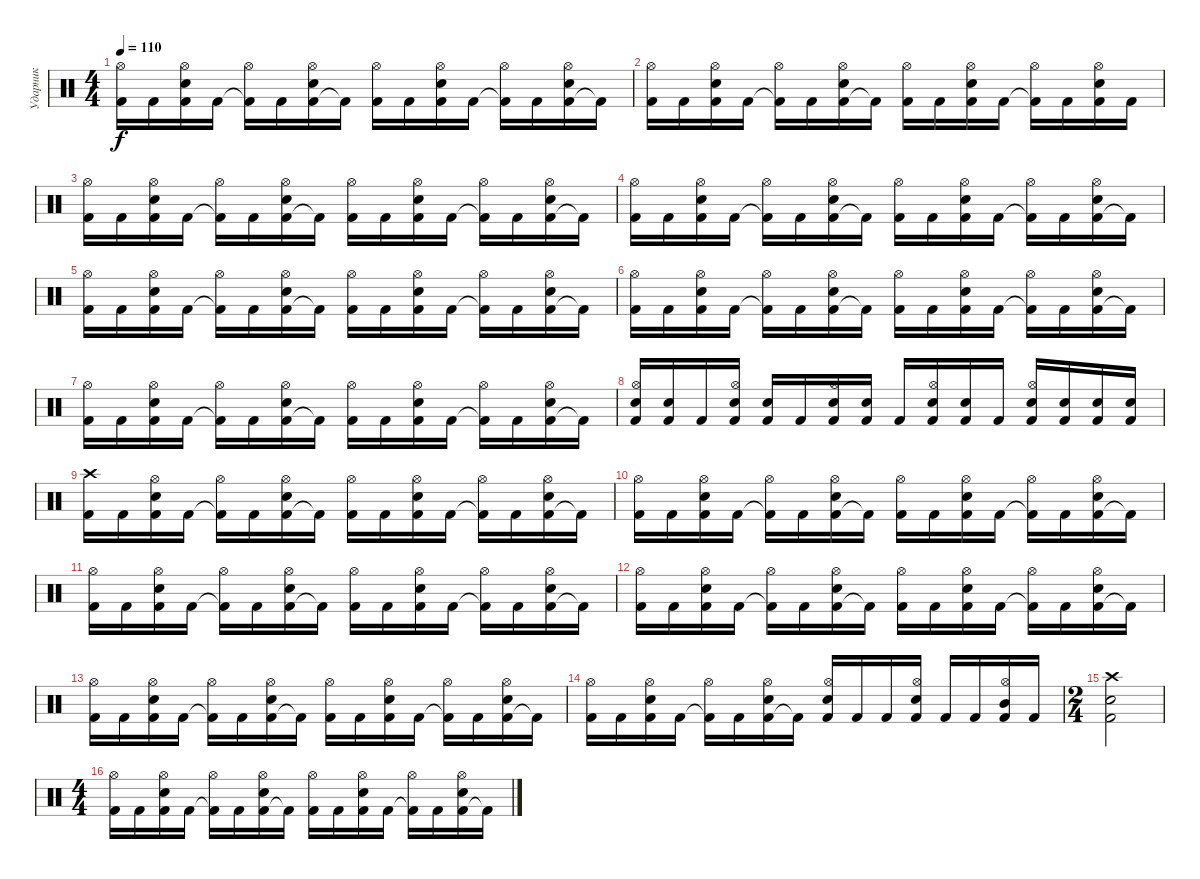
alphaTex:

\track ("Ударник" "Ударник") {instrument percussion}
\staff
\articulation defaults
\ts (4 4)
\tempo 110
\clef neutral
\ks c
("Kick (hit) 2" "Hi-Hat (open)").16{dy f} "Kick (hit) 2".16 ("Kick (hit) 2" "Snare (hit) 2" "Hi-Hat (open)").16 "Kick (hit) 2".16 ("Kick (hit) 2"{t} "Hi-Hat (open)").16 "Kick (hit) 2".16 ("Kick (hit) 2" "Snare (hit) 2" "Hi-Hat (open)").16 "Kick (hit) 2"{t}.16 ("Kick (hit) 2" "Hi-Hat (open)").16 "Kick (hit) 2".16 ("Kick (hit) 2" "Snare (hit) 2" "Hi-Hat (open)").16 "Kick (hit) 2".16 ("Kick (hit) 2"{t} "Hi-Hat (open)").16 "Kick (hit) 2".16 ("Kick (hit) 2" "Snare (hit) 2" "Hi-Hat (open)").16 "Kick (hit) 2"{t}.16 |
("Kick (hit) 2" "Hi-Hat (open)").16 "Kick (hit) 2".16 ("Kick (hit) 2" "Snare (hit) 2" "Hi-Hat (open)").16 "Kick (hit) 2".16 ("Kick (hit) 2"{t} "Hi-Hat (open)").16 "Kick (hit) 2".16 ("Kick (hit) 2" "Snare (hit) 2" "Hi-Hat (open)").16 "Kick (hit) 2"{t}.16 ("Kick (hit) 2" "Hi-Hat (open)").16 "Kick (hit) 2".16 ("Kick (hit) 2" "Snare (hit) 2" "Hi-Hat (open)").16 "Kick (hit) 2".16 ("Kick (hit) 2"{t} "Hi-Hat (open)").16 "Kick (hit) 2".16 ("Kick (hit) 2" "Snare (hit) 2" "Hi-Hat (open)").16 "Kick (hit) 2".16 |
("Kick (hit) 2" "Hi-Hat (open)").16 "Kick (hit) 2".16 ("Kick (hit) 2" "Snare (hit) 2" "Hi-Hat (open)").16 "Kick (hit) 2".16 ("Kick (hit) 2"{t} "Hi-Hat (open)").16 "Kick (hit) 2".16 ("Kick (hit) 2" "Snare (hit) 2" "Hi-Hat (open)").16 "Kick (hit) 2"{t}.16 ("Kick (hit) 2" "Hi-Hat (open)").16 "Kick (hit) 2".16 ("Kick (hit) 2" "Snare (hit) 2" "Hi-Hat (open)").16 "Kick (hit) 2".16 ("Kick (hit) 2"{t} "Hi-Hat (open)").16 "Kick (hit) 2".16 ("Kick (hit) 2" "Snare (hit) 2" "Hi-Hat (open)").16 "Kick (hit) 2"{t}.16 |
("Kick (hit) 2" "Hi-Hat (open)").16 "Kick (hit) 2".16 ("Kick (hit) 2" "Snare (hit) 2" "Hi-Hat (open)").16 "Kick (hit) 2".16 ("Kick (hit) 2"{t} "Hi-Hat (open)").16 "Kick (hit) 2".16 ("Kick (hit) 2" "Snare (hit) 2" "Hi-Hat (open)").16 "Kick (hit) 2"{t}.16 ("Kick (hit) 2" "Hi-Hat (open)").16 "Kick (hit) 2".16 ("Kick (hit) 2" "Snare (hit) 2" "Hi-Hat (open)").16 "Kick (hit) 2".16 ("Kick (hit) 2"{t} "Hi-Hat (open)").16 "Kick (hit) 2".16 ("Kick (hit) 2" "Snare (hit) 2" "Hi-Hat (open)").16 "Kick (hit) 2"{t}.16 |
("Kick (hit) 2" "Hi-Hat (open)").16 "Kick (hit) 2".16 ("Kick (hit) 2" "Snare (hit) 2" "Hi-Hat (open)").16 "Kick (hit) 2".16 ("Kick (hit) 2"{t} "Hi-Hat (open)").16 "Kick (hit) 2".16 ("Kick (hit) 2" "Snare (hit) 2" "Hi-Hat (open)").16 "Kick (hit) 2"{t}.16 ("Kick (hit) 2" "Hi-Hat (open)").16 "Kick (hit) 2".16 ("Kick (hit) 2" "Snare (hit) 2" "Hi-Hat (open)").16 "Kick (hit) 2".16 ("Kick (hit) 2"{t} "Hi-Hat (open)").16 "Kick (hit) 2".16 ("Kick (hit) 2" "Snare (hit) 2" "Hi-Hat (open)").16 "Kick (hit) 2"{t}.16 |
("Kick (hit) 2" "Hi-Hat (open)").16 "Kick (hit) 2".16 ("Kick (hit) 2" "Snare (hit) 2" "Hi-Hat (open)").16 "Kick (hit) 2".16 ("Kick (hit) 2"{t} "Hi-Hat (open)").16 "Kick (hit) 2".16 ("Kick (hit) 2" "Snare (hit) 2" "Hi-Hat (open)").16 "Kick (hit) 2"{t}.16 ("Kick (hit) 2" "Hi-Hat (open)").16 "Kick (hit) 2".16 ("Kick (hit) 2" "Snare (hit) 2" "Hi-Hat (open)").16 "Kick (hit) 2".16 ("Kick (hit) 2"{t} "Hi-Hat (open)").16 "Kick (hit) 2".16 ("Kick (hit) 2" "Snare (hit) 2" "Hi-Hat (open)").16 "Kick (hit) 2"{t}.16 |
("Kick (hit) 2" "Hi-Hat (open)").16 "Kick (hit) 2".16 ("Kick (hit) 2" "Snare (hit) 2" "Hi-Hat (open)").16 "Kick (hit) 2".16 ("Kick (hit) 2"{t} "Hi-Hat (open)").16 "Kick (hit) 2".16 ("Kick (hit) 2" "Snare (hit) 2" "Hi-Hat (open)").16 "Kick (hit) 2"{t}.16 ("Kick (hit) 2" "Hi-Hat (open)").16 "Kick (hit) 2".16 ("Kick (hit) 2" "Snare (hit) 2" "Hi-Hat (open)").16 "Kick (hit) 2".16 ("Kick (hit) 2"{t} "Hi-Hat (open)").16 "Kick (hit) 2".16 ("Kick (hit) 2" "Snare (hit) 2" "Hi-Hat (open)").16 "Kick (hit) 2"{t}.16 |
("Kick (hit) 2" "Snare (hit) 2" "Hi-Hat (open)").16 ("Kick (hit) 2" "Snare (hit) 2").16 "Kick (hit) 2".16 ("Kick (hit) 2" "Snare (hit) 2" "Hi-Hat (open)").16 ("Kick (hit) 2" "Snare (hit) 2").16 "Kick (hit) 2".16 ("Kick (hit) 2" "Snare (hit) 2" "Hi-Hat (open)").16 ("Kick (hit) 2" "Snare (hit) 2").16 "Kick (hit) 2".16 ("Kick (hit) 2" "Snare (hit) 2" "Hi-Hat (open)").16 ("Kick (hit) 2" "Snare (hit) 2").16 "Kick (hit) 2".16 ("Kick (hit) 2" "Snare (hit) 2" "Hi-Hat (open)").16 ("Kick (hit) 2" "Snare (hit) 2").16 ("Kick (hit) 2" "Snare (hit) 2").16 ("Kick (hit) 2" "Snare (hit) 2").16 |
("Kick (hit) 2" "Crash high (hit)").16 "Kick (hit) 2".16 ("Kick (hit) 2" "Snare (hit) 2" "Hi-Hat (open)").16 "Kick (hit) 2".16 ("Kick (hit) 2"{t} "Hi-Hat (open)").16 "Kick (hit) 2".16 ("Kick (hit) 2" "Snare (hit) 2" "Hi-Hat (open)").16 "Kick (hit) 2"{t}.16 ("Kick (hit) 2" "Hi-Hat (open)").16 "Kick (hit) 2".16 ("Kick (hit) 2" "Snare (hit) 2" "Hi-Hat (open)").16 "Kick (hit) 2".16 ("Kick (hit) 2"{t} "Hi-Hat (open)").16 "Kick (hit) 2".16 ("Kick (hit) 2" "Snare (hit) 2" "Hi-Hat (open)").16 "Kick (hit) 2"{t}.16 |
("Kick (hit) 2" "Hi-Hat (open)").16 "Kick (hit) 2".16 ("Kick (hit) 2" "Snare (hit) 2" "Hi-Hat (open)").16 "Kick (hit) 2".16 ("Kick (hit) 2"{t} "Hi-Hat (open)").16 "Kick (hit) 2".16 ("Kick (hit) 2" "Snare (hit) 2" "Hi-Hat (open)").16 "Kick (hit) 2"{t}.16 ("Kick (hit) 2" "Hi-Hat (open)").16 "Kick (hit) 2".16 ("Kick (hit) 2" "Snare (hit) 2" "Hi-Hat (open)").16 "Kick (hit) 2".16 ("Kick (hit) 2"{t} "Hi-Hat (open)").16 "Kick (hit) 2".16 ("Kick (hit) 2" "Snare (hit) 2" "Hi-Hat (open)").16 "Kick (hit) 2"{t}.16 |
("Kick (hit) 2" "Hi-Hat (open)").16 "Kick (hit) 2".16 ("Kick (hit) 2" "Snare (hit) 2" "Hi-Hat (open)").16 "Kick (hit) 2".16 ("Kick (hit) 2"{t} "Hi-Hat (open)").16 "Kick (hit) 2".16 ("Kick (hit) 2" "Snare (hit) 2" "Hi-Hat (open)").16 "Kick (hit) 2"{t}.16 ("Kick (hit) 2" "Hi-Hat (open)").16 "Kick (hit) 2".16 ("Kick (hit) 2" "Snare (hit) 2" "Hi-Hat (open)").16 "Kick (hit) 2".16 ("Kick (hit) 2"{t} "Hi-Hat (open)").16 "Kick (hit) 2".16 ("Kick (hit) 2" "Snare (hit) 2" "Hi-Hat (open)").16 "Kick (hit) 2"{t}.16 |
("Kick (hit) 2" "Hi-Hat (open)").16 "Kick (hit) 2".16 ("Kick (hit) 2" "Snare (hit) 2" "Hi-Hat (open)").16 "Kick (hit) 2".16 ("Kick (hit) 2"{t} "Hi-Hat (open)").16 "Kick (hit) 2".16 ("Kick (hit) 2" "Snare (hit) 2" "Hi-Hat (open)").16 "Kick (hit) 2"{t}.16 ("Kick (hit) 2" "Hi-Hat (open)").16 "Kick (hit) 2".16 ("Kick (hit) 2" "Snare (hit) 2" "Hi-Hat (open)").16 "Kick (hit) 2".16 ("Kick (hit) 2"{t} "Hi-Hat (open)").16 "Kick (hit) 2".16 ("Kick (hit) 2" "Snare (hit) 2" "Hi-Hat (open)").16 "Kick (hit) 2"{t}.16 |
("Kick (hit) 2" "Hi-Hat (open)").16 "Kick (hit) 2".16 ("Kick (hit) 2" "Snare (hit) 2" "Hi-Hat (open)").16 "Kick (hit) 2".16 ("Kick (hit) 2"{t} "Hi-Hat (open)").16 "Kick (hit) 2".16 ("Kick (hit) 2" "Snare (hit) 2" "Hi-Hat (open)").16 "Kick (hit) 2"{t}.16 ("Kick (hit) 2" "Hi-Hat (open)").16 "Kick (hit) 2".16 ("Kick (hit) 2" "Snare (hit) 2" "Hi-Hat (open)").16 "Kick (hit) 2".16 ("Kick (hit) 2"{t} "Hi-Hat (open)").16 "Kick (hit) 2".16 ("Kick (hit) 2" "Snare (hit) 2" "Hi-Hat (open)").16 "Kick (hit) 2"{t}.16 |
("Kick (hit) 2" "Hi-Hat (open)").16 "Kick (hit) 2".16 ("Kick (hit) 2" "Snare (hit) 2" "Hi-Hat (open)").16 "Kick (hit) 2".16 ("Kick (hit) 2"{t} "Hi-Hat (open)").16 "Kick (hit) 2".16 ("Kick (hit) 2" "Snare (hit) 2" "Hi-Hat (open)").16 "Kick (hit) 2"{t}.16 ("Kick (hit) 2" "Snare (hit) 2" "Hi-Hat (open)").16 "Kick (hit) 2".16 "Kick (hit) 2".16 ("Kick (hit) 2" "Snare (hit) 2" "Hi-Hat (open)").16 "Kick (hit) 2".16 "Kick (hit) 2".16 ("Kick (hit) 2" "Mid Tom (hit)" "Hi-Hat (open)").16 "Kick (hit) 2".16 |
\ts (2 4)
("Kick (hit) 2" "Snare (hit) 2" "Crash high (hit)").2 |
\ts (4 4)
("Kick (hit) 2" "Hi-Hat (open)").16 "Kick (hit) 2".16 ("Kick (hit) 2" "Snare (hit) 2" "Hi-Hat (open)").16 "Kick (hit) 2".16 ("Kick (hit) 2"{t} "Hi-Hat (open)").16 "Kick (hit) 2".16 ("Kick (hit) 2" "Snare (hit) 2" "Hi-Hat (open)").16 "Kick (hit) 2"{t}.16 ("Kick (hit) 2" "Hi-Hat (open)").16 "Kick (hit) 2".16 ("Kick (hit) 2" "Snare (hit) 2" "Hi-Hat (open)").16 "Kick (hit) 2".16 ("Kick (hit) 2"{t} "Hi-Hat (open)").16 "Kick (hit) 2".16 ("Kick (hit) 2" "Snare (hit) 2" "Hi-Hat (open)").16 "Kick (hit) 2"{t}.16
